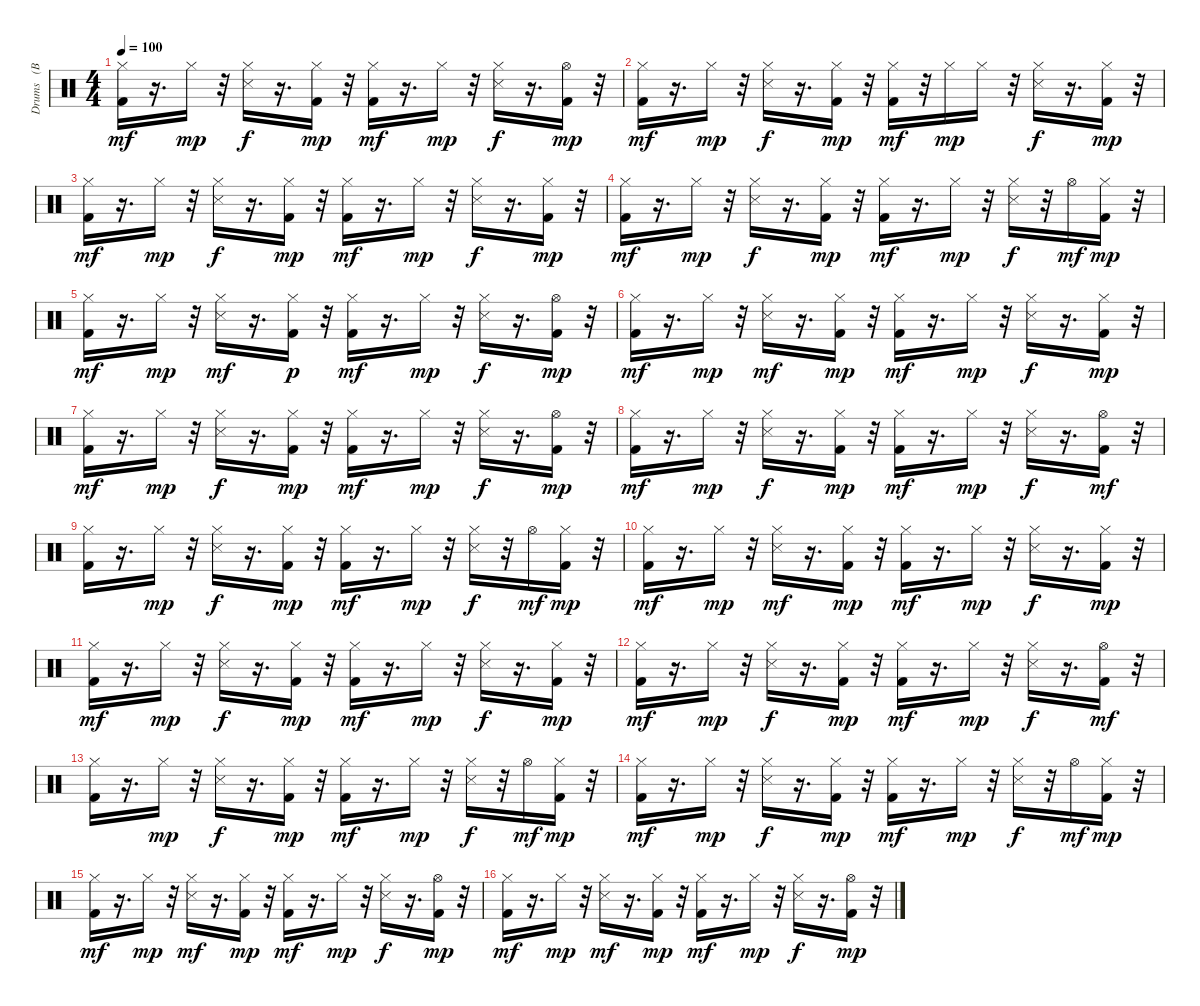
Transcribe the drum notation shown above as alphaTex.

\track ("Drums   (BB)" "Drums   (B") {instrument percussion}
\staff {score}
\articulation defaults
\ts (4 4)
\tempo 100
\clef neutral
\ks c
("Kick (hit) 2" "Hi-Hat (closed)").16{dy mf} r.16{d} "Hi-Hat (closed)".16{dy mp} r.32 ("Hi-Hat (closed)" "Snare (side stick) 3").16{dy f} r.16{d} ("Kick (hit) 2" "Hi-Hat (closed)").16{dy mp} r.32 ("Kick (hit) 2" "Hi-Hat (closed)").16{dy mf} r.16{d} "Hi-Hat (closed)".16{dy mp} r.32 ("Hi-Hat (closed)" "Snare (side stick) 3").16{dy f} r.16{d} ("Kick (hit) 2" "Hi-Hat (open)").16{dy mp} r.32 |
("Kick (hit) 2" "Hi-Hat (closed)").16{dy mf} r.16{d} "Hi-Hat (closed)".16{dy mp} r.32 ("Hi-Hat (closed)" "Snare (side stick) 3").16{dy f} r.16{d} ("Kick (hit) 2" "Hi-Hat (closed)").16{dy mp} r.32 ("Kick (hit) 2" "Hi-Hat (closed)").16{dy mf} r.32 "Hi-Hat (closed)".16{dy mp} "Hi-Hat (closed)".16 r.32 ("Hi-Hat (closed)" "Snare (side stick) 3").16{dy f} r.16{d} ("Kick (hit) 2" "Hi-Hat (closed)").16{dy mp} r.32 |
("Kick (hit) 2" "Hi-Hat (closed)").16{dy mf} r.16{d} "Hi-Hat (closed)".16{dy mp} r.32 ("Hi-Hat (closed)" "Snare (side stick) 3").16{dy f} r.16{d} ("Kick (hit) 2" "Hi-Hat (closed)").16{dy mp} r.32 ("Kick (hit) 2" "Hi-Hat (closed)").16{dy mf} r.16{d} "Hi-Hat (closed)".16{dy mp} r.32 ("Hi-Hat (closed)" "Snare (side stick) 3").16{dy f} r.16{d} ("Kick (hit) 2" "Hi-Hat (closed)").16{dy mp} r.32 |
("Kick (hit) 2" "Hi-Hat (closed)").16{dy mf} r.16{d} "Hi-Hat (closed)".16{dy mp} r.32 ("Hi-Hat (closed)" "Snare (side stick) 3").16{dy f} r.16{d} ("Kick (hit) 2" "Hi-Hat (closed)").16{dy mp} r.32 ("Kick (hit) 2" "Hi-Hat (closed)").16{dy mf} r.16{d} "Hi-Hat (closed)".16{dy mp} r.32 ("Hi-Hat (closed)" "Snare (side stick) 3").16{dy f} r.32 "Hi-Hat (open)".16{dy mf} ("Kick (hit) 2" "Hi-Hat (closed)").16{dy mp} r.32 |
("Kick (hit) 2" "Hi-Hat (closed)").16{dy mf} r.16{d} "Hi-Hat (closed)".16{dy mp} r.32 ("Hi-Hat (closed)" "Snare (side stick) 3").16{dy mf} r.16{d} ("Kick (hit) 2" "Hi-Hat (closed)").16{dy p} r.32 ("Kick (hit) 2" "Hi-Hat (closed)").16{dy mf} r.16{d} "Hi-Hat (closed)".16{dy mp} r.32 ("Hi-Hat (closed)" "Snare (side stick) 3").16{dy f} r.16{d} ("Kick (hit) 2" "Hi-Hat (open)").16{dy mp} r.32 |
("Kick (hit) 2" "Hi-Hat (closed)").16{dy mf} r.16{d} "Hi-Hat (closed)".16{dy mp} r.32 ("Hi-Hat (closed)" "Snare (side stick) 3").16{dy mf} r.16{d} ("Kick (hit) 2" "Hi-Hat (closed)").16{dy mp} r.32 ("Kick (hit) 2" "Hi-Hat (closed)").16{dy mf} r.16{d} "Hi-Hat (closed)".16{dy mp} r.32 ("Hi-Hat (closed)" "Snare (side stick) 3").16{dy f} r.16{d} ("Kick (hit) 2" "Hi-Hat (closed)").16{dy mp} r.32 |
("Kick (hit) 2" "Hi-Hat (closed)").16{dy mf} r.16{d} "Hi-Hat (closed)".16{dy mp} r.32 ("Hi-Hat (closed)" "Snare (side stick) 3").16{dy f} r.16{d} ("Kick (hit) 2" "Hi-Hat (closed)").16{dy mp} r.32 ("Kick (hit) 2" "Hi-Hat (closed)").16{dy mf} r.16{d} "Hi-Hat (closed)".16{dy mp} r.32 ("Hi-Hat (closed)" "Snare (side stick) 3").16{dy f} r.16{d} ("Kick (hit) 2" "Hi-Hat (open)").16{dy mp} r.32 |
("Kick (hit) 2" "Hi-Hat (closed)").16{dy mf} r.16{d} "Hi-Hat (closed)".16{dy mp} r.32 ("Hi-Hat (closed)" "Snare (side stick) 3").16{dy f} r.16{d} ("Kick (hit) 2" "Hi-Hat (closed)").16{dy mp} r.32 ("Kick (hit) 2" "Hi-Hat (closed)").16{dy mf} r.16{d} "Hi-Hat (closed)".16{dy mp} r.32 ("Hi-Hat (closed)" "Snare (side stick) 3").16{dy f} r.16{d} ("Kick (hit) 2" "Hi-Hat (open)").16{dy mf} r.32 |
("Kick (hit) 2" "Hi-Hat (closed)").16 r.16{d} "Hi-Hat (closed)".16{dy mp} r.32 ("Hi-Hat (closed)" "Snare (side stick) 3").16{dy f} r.16{d} ("Kick (hit) 2" "Hi-Hat (closed)").16{dy mp} r.32 ("Kick (hit) 2" "Hi-Hat (closed)").16{dy mf} r.16{d} "Hi-Hat (closed)".16{dy mp} r.32 ("Hi-Hat (closed)" "Snare (side stick) 3").16{dy f} r.32 "Hi-Hat (open)".16{dy mf} ("Kick (hit) 2" "Hi-Hat (closed)").16{dy mp} r.32 |
("Kick (hit) 2" "Hi-Hat (closed)").16{dy mf} r.16{d} "Hi-Hat (closed)".16{dy mp} r.32 ("Hi-Hat (closed)" "Snare (side stick) 3").16{dy mf} r.16{d} ("Kick (hit) 2" "Hi-Hat (closed)").16{dy mp} r.32 ("Kick (hit) 2" "Hi-Hat (closed)").16{dy mf} r.16{d} "Hi-Hat (closed)".16{dy mp} r.32 ("Hi-Hat (closed)" "Snare (side stick) 3").16{dy f} r.16{d} ("Kick (hit) 2" "Hi-Hat (closed)").16{dy mp} r.32 |
("Kick (hit) 2" "Hi-Hat (closed)").16{dy mf} r.16{d} "Hi-Hat (closed)".16{dy mp} r.32 ("Hi-Hat (closed)" "Snare (side stick) 3").16{dy f} r.16{d} ("Kick (hit) 2" "Hi-Hat (closed)").16{dy mp} r.32 ("Kick (hit) 2" "Hi-Hat (closed)").16{dy mf} r.16{d} "Hi-Hat (closed)".16{dy mp} r.32 ("Hi-Hat (closed)" "Snare (side stick) 3").16{dy f} r.16{d} ("Kick (hit) 2" "Hi-Hat (closed)").16{dy mp} r.32 |
("Kick (hit) 2" "Hi-Hat (closed)").16{dy mf} r.16{d} "Hi-Hat (closed)".16{dy mp} r.32 ("Hi-Hat (closed)" "Snare (side stick) 3").16{dy f} r.16{d} ("Kick (hit) 2" "Hi-Hat (closed)").16{dy mp} r.32 ("Kick (hit) 2" "Hi-Hat (closed)").16{dy mf} r.16{d} "Hi-Hat (closed)".16{dy mp} r.32 ("Hi-Hat (closed)" "Snare (side stick) 3").16{dy f} r.16{d} ("Kick (hit) 2" "Hi-Hat (open)").16{dy mf} r.32 |
("Kick (hit) 2" "Hi-Hat (closed)").16 r.16{d} "Hi-Hat (closed)".16{dy mp} r.32 ("Hi-Hat (closed)" "Snare (side stick) 3").16{dy f} r.16{d} ("Kick (hit) 2" "Hi-Hat (closed)").16{dy mp} r.32 ("Kick (hit) 2" "Hi-Hat (closed)").16{dy mf} r.16{d} "Hi-Hat (closed)".16{dy mp} r.32 ("Hi-Hat (closed)" "Snare (side stick) 3").16{dy f} r.32 "Hi-Hat (open)".16{dy mf} ("Kick (hit) 2" "Hi-Hat (closed)").16{dy mp} r.32 |
("Kick (hit) 2" "Hi-Hat (closed)").16{dy mf} r.16{d} "Hi-Hat (closed)".16{dy mp} r.32 ("Hi-Hat (closed)" "Snare (side stick) 3").16{dy f} r.16{d} ("Kick (hit) 2" "Hi-Hat (closed)").16{dy mp} r.32 ("Kick (hit) 2" "Hi-Hat (closed)").16{dy mf} r.16{d} "Hi-Hat (closed)".16{dy mp} r.32 ("Hi-Hat (closed)" "Snare (side stick) 3").16{dy f} r.32 "Hi-Hat (open)".16{dy mf} ("Kick (hit) 2" "Hi-Hat (closed)").16{dy mp} r.32 |
("Kick (hit) 2" "Hi-Hat (closed)").16{dy mf} r.16{d} "Hi-Hat (closed)".16{dy mp} r.32 ("Hi-Hat (closed)" "Snare (side stick) 3").16{dy mf} r.16{d} ("Kick (hit) 2" "Hi-Hat (closed)").16{dy mp} r.32 ("Kick (hit) 2" "Hi-Hat (closed)").16{dy mf} r.16{d} "Hi-Hat (closed)".16{dy mp} r.32 ("Hi-Hat (closed)" "Snare (side stick) 3").16{dy f} r.16{d} ("Kick (hit) 2" "Hi-Hat (open)").16{dy mp} r.32 |
("Kick (hit) 2" "Hi-Hat (closed)").16{dy mf} r.16{d} "Hi-Hat (closed)".16{dy mp} r.32 ("Hi-Hat (closed)" "Snare (side stick) 3").16{dy mf} r.16{d} ("Kick (hit) 2" "Hi-Hat (closed)").16{dy mp} r.32 ("Kick (hit) 2" "Hi-Hat (closed)").16{dy mf} r.16{d} "Hi-Hat (closed)".16{dy mp} r.32 ("Hi-Hat (closed)" "Snare (side stick) 3").16{dy f} r.16{d} ("Kick (hit) 2" "Hi-Hat (open)").16{dy mp} r.32
